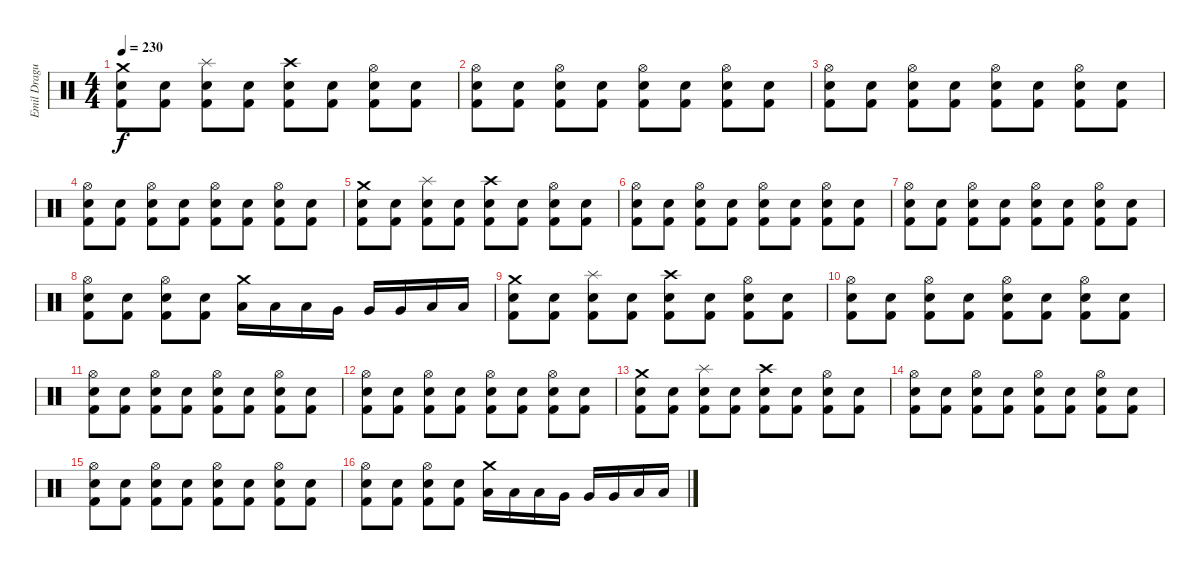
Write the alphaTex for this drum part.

\track ("Emil Dragutinovic" "Emil Dragu") {instrument percussion}
\staff {score}
\articulation defaults
\ts (4 4)
\tempo 230
\clef neutral
\ks c
("Crash medium (hit)" "Electric Snare (hit)" "Kick (hit) 2").8{dy f} ("Electric Snare (hit)" "Kick (hit) 2").8 ("Splash (hit)" "Electric Snare (hit)" "Kick (hit) 2").8 ("Electric Snare (hit)" "Kick (hit) 2").8 ("Crash high (hit)" "Electric Snare (hit)" "Kick (hit) 2").8 ("Electric Snare (hit)" "Kick (hit) 2").8 ("Hi-Hat (open)" "Electric Snare (hit)" "Kick (hit) 2").8 ("Electric Snare (hit)" "Kick (hit) 2").8 |
("Hi-Hat (open)" "Electric Snare (hit)" "Kick (hit) 2").8 ("Electric Snare (hit)" "Kick (hit) 2").8 ("Hi-Hat (open)" "Electric Snare (hit)" "Kick (hit) 2").8 ("Electric Snare (hit)" "Kick (hit) 2").8 ("Hi-Hat (open)" "Electric Snare (hit)" "Kick (hit) 2").8 ("Electric Snare (hit)" "Kick (hit) 2").8 ("Hi-Hat (open)" "Electric Snare (hit)" "Kick (hit) 2").8 ("Electric Snare (hit)" "Kick (hit) 2").8 |
("Hi-Hat (open)" "Electric Snare (hit)" "Kick (hit) 2").8 ("Electric Snare (hit)" "Kick (hit) 2").8 ("Hi-Hat (open)" "Electric Snare (hit)" "Kick (hit) 2").8 ("Electric Snare (hit)" "Kick (hit) 2").8 ("Hi-Hat (open)" "Electric Snare (hit)" "Kick (hit) 2").8 ("Electric Snare (hit)" "Kick (hit) 2").8 ("Hi-Hat (open)" "Electric Snare (hit)" "Kick (hit) 2").8 ("Electric Snare (hit)" "Kick (hit) 2").8 |
("Hi-Hat (open)" "Electric Snare (hit)" "Kick (hit) 2").8 ("Electric Snare (hit)" "Kick (hit) 2").8 ("Hi-Hat (open)" "Electric Snare (hit)" "Kick (hit) 2").8 ("Electric Snare (hit)" "Kick (hit) 2").8 ("Hi-Hat (open)" "Electric Snare (hit)" "Kick (hit) 2").8 ("Electric Snare (hit)" "Kick (hit) 2").8 ("Hi-Hat (open)" "Electric Snare (hit)" "Kick (hit) 2").8 ("Electric Snare (hit)" "Kick (hit) 2").8 |
("Crash medium (hit)" "Electric Snare (hit)" "Kick (hit) 2").8 ("Electric Snare (hit)" "Kick (hit) 2").8 ("Splash (hit)" "Electric Snare (hit)" "Kick (hit) 2").8 ("Electric Snare (hit)" "Kick (hit) 2").8 ("Crash high (hit)" "Electric Snare (hit)" "Kick (hit) 2").8 ("Electric Snare (hit)" "Kick (hit) 2").8 ("Hi-Hat (open)" "Electric Snare (hit)" "Kick (hit) 2").8 ("Electric Snare (hit)" "Kick (hit) 2").8 |
("Hi-Hat (open)" "Electric Snare (hit)" "Kick (hit) 2").8 ("Electric Snare (hit)" "Kick (hit) 2").8 ("Hi-Hat (open)" "Electric Snare (hit)" "Kick (hit) 2").8 ("Electric Snare (hit)" "Kick (hit) 2").8 ("Hi-Hat (open)" "Electric Snare (hit)" "Kick (hit) 2").8 ("Electric Snare (hit)" "Kick (hit) 2").8 ("Hi-Hat (open)" "Electric Snare (hit)" "Kick (hit) 2").8 ("Electric Snare (hit)" "Kick (hit) 2").8 |
("Hi-Hat (open)" "Electric Snare (hit)" "Kick (hit) 2").8 ("Electric Snare (hit)" "Kick (hit) 2").8 ("Hi-Hat (open)" "Electric Snare (hit)" "Kick (hit) 2").8 ("Electric Snare (hit)" "Kick (hit) 2").8 ("Hi-Hat (open)" "Electric Snare (hit)" "Kick (hit) 2").8 ("Electric Snare (hit)" "Kick (hit) 2").8 ("Hi-Hat (open)" "Electric Snare (hit)" "Kick (hit) 2").8 ("Electric Snare (hit)" "Kick (hit) 2").8 |
("Hi-Hat (open)" "Electric Snare (hit)" "Kick (hit) 2").8 ("Electric Snare (hit)" "Kick (hit) 2").8 ("Hi-Hat (open)" "Electric Snare (hit)" "Kick (hit) 2").8 ("Electric Snare (hit)" "Kick (hit) 2").8 ("Crash medium (hit)" "Low Tom (hit)").16 "Low Tom (hit)".16 "Low Tom (hit)".16 "Very Low Tom (hit)".16 "Very Low Tom (hit)".16 "Very Low Tom (hit)".16 "Low Floor Tom (hit)".16 "Low Floor Tom (hit)".16 |
("Crash medium (hit)" "Electric Snare (hit)" "Kick (hit) 2").8 ("Electric Snare (hit)" "Kick (hit) 2").8 ("Splash (hit)" "Electric Snare (hit)" "Kick (hit) 2").8 ("Electric Snare (hit)" "Kick (hit) 2").8 ("Crash high (hit)" "Electric Snare (hit)" "Kick (hit) 2").8 ("Electric Snare (hit)" "Kick (hit) 2").8 ("Hi-Hat (open)" "Electric Snare (hit)" "Kick (hit) 2").8 ("Electric Snare (hit)" "Kick (hit) 2").8 |
("Hi-Hat (open)" "Electric Snare (hit)" "Kick (hit) 2").8 ("Electric Snare (hit)" "Kick (hit) 2").8 ("Hi-Hat (open)" "Electric Snare (hit)" "Kick (hit) 2").8 ("Electric Snare (hit)" "Kick (hit) 2").8 ("Hi-Hat (open)" "Electric Snare (hit)" "Kick (hit) 2").8 ("Electric Snare (hit)" "Kick (hit) 2").8 ("Hi-Hat (open)" "Electric Snare (hit)" "Kick (hit) 2").8 ("Electric Snare (hit)" "Kick (hit) 2").8 |
("Hi-Hat (open)" "Electric Snare (hit)" "Kick (hit) 2").8 ("Electric Snare (hit)" "Kick (hit) 2").8 ("Hi-Hat (open)" "Electric Snare (hit)" "Kick (hit) 2").8 ("Electric Snare (hit)" "Kick (hit) 2").8 ("Hi-Hat (open)" "Electric Snare (hit)" "Kick (hit) 2").8 ("Electric Snare (hit)" "Kick (hit) 2").8 ("Hi-Hat (open)" "Electric Snare (hit)" "Kick (hit) 2").8 ("Electric Snare (hit)" "Kick (hit) 2").8 |
("Hi-Hat (open)" "Electric Snare (hit)" "Kick (hit) 2").8 ("Electric Snare (hit)" "Kick (hit) 2").8 ("Hi-Hat (open)" "Electric Snare (hit)" "Kick (hit) 2").8 ("Electric Snare (hit)" "Kick (hit) 2").8 ("Hi-Hat (open)" "Electric Snare (hit)" "Kick (hit) 2").8 ("Electric Snare (hit)" "Kick (hit) 2").8 ("Hi-Hat (open)" "Electric Snare (hit)" "Kick (hit) 2").8 ("Electric Snare (hit)" "Kick (hit) 2").8 |
("Crash medium (hit)" "Electric Snare (hit)" "Kick (hit) 2").8 ("Electric Snare (hit)" "Kick (hit) 2").8 ("Splash (hit)" "Electric Snare (hit)" "Kick (hit) 2").8 ("Electric Snare (hit)" "Kick (hit) 2").8 ("Crash high (hit)" "Electric Snare (hit)" "Kick (hit) 2").8 ("Electric Snare (hit)" "Kick (hit) 2").8 ("Hi-Hat (open)" "Electric Snare (hit)" "Kick (hit) 2").8 ("Electric Snare (hit)" "Kick (hit) 2").8 |
("Hi-Hat (open)" "Electric Snare (hit)" "Kick (hit) 2").8 ("Electric Snare (hit)" "Kick (hit) 2").8 ("Hi-Hat (open)" "Electric Snare (hit)" "Kick (hit) 2").8 ("Electric Snare (hit)" "Kick (hit) 2").8 ("Hi-Hat (open)" "Electric Snare (hit)" "Kick (hit) 2").8 ("Electric Snare (hit)" "Kick (hit) 2").8 ("Hi-Hat (open)" "Electric Snare (hit)" "Kick (hit) 2").8 ("Electric Snare (hit)" "Kick (hit) 2").8 |
("Hi-Hat (open)" "Electric Snare (hit)" "Kick (hit) 2").8 ("Electric Snare (hit)" "Kick (hit) 2").8 ("Hi-Hat (open)" "Electric Snare (hit)" "Kick (hit) 2").8 ("Electric Snare (hit)" "Kick (hit) 2").8 ("Hi-Hat (open)" "Electric Snare (hit)" "Kick (hit) 2").8 ("Electric Snare (hit)" "Kick (hit) 2").8 ("Hi-Hat (open)" "Electric Snare (hit)" "Kick (hit) 2").8 ("Electric Snare (hit)" "Kick (hit) 2").8 |
("Hi-Hat (open)" "Electric Snare (hit)" "Kick (hit) 2").8 ("Electric Snare (hit)" "Kick (hit) 2").8 ("Hi-Hat (open)" "Electric Snare (hit)" "Kick (hit) 2").8 ("Electric Snare (hit)" "Kick (hit) 2").8 ("Crash medium (hit)" "Low Tom (hit)").16 "Low Tom (hit)".16 "Low Tom (hit)".16 "Very Low Tom (hit)".16 "Very Low Tom (hit)".16 "Very Low Tom (hit)".16 "Low Floor Tom (hit)".16 "Low Floor Tom (hit)".16
